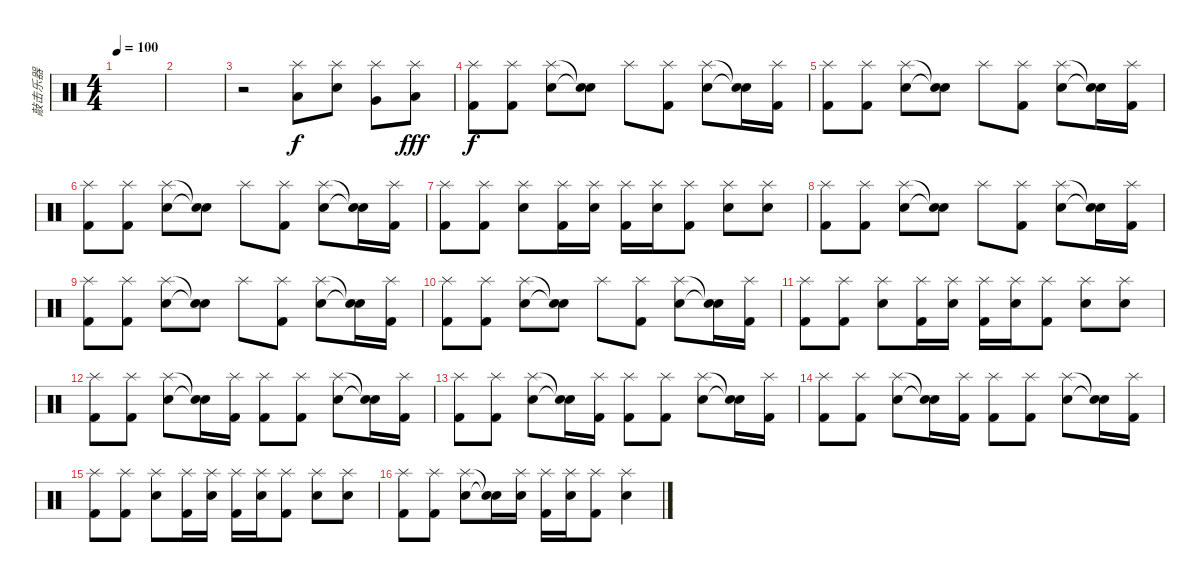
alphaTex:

\track ("敲击乐器" "敲击乐器") {instrument percussion}
\staff {score}
\articulation defaults
\ts (4 4)
\tempo 100
\clef neutral
\ks c
|
|
r.2 ("Low Floor Tom (hit)" "Splash (hit)").8 ("Electric Snare (hit)" "Splash (hit)").8 ("Very Low Tom (hit)" "Splash (hit)").8 ("Low Floor Tom (hit)" "Splash (hit)").8{dy fff} |
("Kick (hit) 2" "Splash (hit)").8{dy f} ("Kick (hit) 2" "Splash (hit)").8 ("Electric Snare (hit)" "Splash (hit)").8 ("Snare (hit)"{t} "Snare (hit)"{t}).8 "Splash (hit)".8 ("Kick (hit) 2" "Splash (hit)").8 ("Electric Snare (hit)" "Splash (hit)").8 ("Snare (hit)"{t} "Snare (hit)"{t}).16 ("Kick (hit) 2" "Splash (hit)").16 |
("Kick (hit) 2" "Splash (hit)").8 ("Kick (hit) 2" "Splash (hit)").8 ("Electric Snare (hit)" "Splash (hit)").8 ("Snare (hit)"{t} "Snare (hit)"{t}).8 "Splash (hit)".8 ("Kick (hit) 2" "Splash (hit)").8 ("Electric Snare (hit)" "Splash (hit)").8 ("Snare (hit)"{t} "Snare (hit)"{t}).16 ("Kick (hit) 2" "Splash (hit)").16 |
("Kick (hit) 2" "Splash (hit)").8 ("Kick (hit) 2" "Splash (hit)").8 ("Electric Snare (hit)" "Splash (hit)").8 ("Snare (hit)"{t} "Snare (hit)"{t}).8 "Splash (hit)".8 ("Kick (hit) 2" "Splash (hit)").8 ("Electric Snare (hit)" "Splash (hit)").8 ("Snare (hit)"{t} "Snare (hit)"{t}).16 ("Kick (hit) 2" "Splash (hit)").16 |
("Kick (hit) 2" "Splash (hit)").8 ("Kick (hit) 2" "Splash (hit)").8 ("Electric Snare (hit)" "Splash (hit)").8 ("Kick (hit) 2" "Splash (hit)").16 ("Electric Snare (hit)" "Splash (hit)").16 ("Kick (hit) 2" "Splash (hit)").16 ("Electric Snare (hit)" "Splash (hit)").16 ("Kick (hit) 2" "Splash (hit)").8 ("Electric Snare (hit)" "Splash (hit)").8 ("Electric Snare (hit)" "Splash (hit)").8 |
("Kick (hit) 2" "Splash (hit)").8 ("Kick (hit) 2" "Splash (hit)").8 ("Electric Snare (hit)" "Splash (hit)").8 ("Snare (hit)"{t} "Snare (hit)"{t}).8 "Splash (hit)".8 ("Kick (hit) 2" "Splash (hit)").8 ("Electric Snare (hit)" "Splash (hit)").8 ("Snare (hit)"{t} "Snare (hit)"{t}).16 ("Kick (hit) 2" "Splash (hit)").16 |
("Kick (hit) 2" "Splash (hit)").8 ("Kick (hit) 2" "Splash (hit)").8 ("Electric Snare (hit)" "Splash (hit)").8 ("Snare (hit)"{t} "Snare (hit)"{t}).8 "Splash (hit)".8 ("Kick (hit) 2" "Splash (hit)").8 ("Electric Snare (hit)" "Splash (hit)").8 ("Snare (hit)"{t} "Snare (hit)"{t}).16 ("Kick (hit) 2" "Splash (hit)").16 |
("Kick (hit) 2" "Splash (hit)").8 ("Kick (hit) 2" "Splash (hit)").8 ("Electric Snare (hit)" "Splash (hit)").8 ("Snare (hit)"{t} "Snare (hit)"{t}).8 "Splash (hit)".8 ("Kick (hit) 2" "Splash (hit)").8 ("Electric Snare (hit)" "Splash (hit)").8 ("Snare (hit)"{t} "Snare (hit)"{t}).16 ("Kick (hit) 2" "Splash (hit)").16 |
("Kick (hit) 2" "Splash (hit)").8 ("Kick (hit) 2" "Splash (hit)").8 ("Electric Snare (hit)" "Splash (hit)").8 ("Kick (hit) 2" "Splash (hit)").16 ("Electric Snare (hit)" "Splash (hit)").16 ("Kick (hit) 2" "Splash (hit)").16 ("Electric Snare (hit)" "Splash (hit)").16 ("Kick (hit) 2" "Splash (hit)").8 ("Electric Snare (hit)" "Splash (hit)").8 ("Electric Snare (hit)" "Splash (hit)").8 |
("Kick (hit) 2" "Splash (hit)").8 ("Kick (hit) 2" "Splash (hit)").8 ("Electric Snare (hit)" "Splash (hit)").8 ("Snare (hit)"{t} "Snare (hit)"{t}).16 ("Kick (hit) 2" "Splash (hit)").16 ("Kick (hit) 2" "Splash (hit)").8 ("Kick (hit) 2" "Splash (hit)").8 ("Electric Snare (hit)" "Splash (hit)").8 ("Snare (hit)"{t} "Snare (hit)"{t}).16 ("Kick (hit) 2" "Splash (hit)").16 |
("Kick (hit) 2" "Splash (hit)").8 ("Kick (hit) 2" "Splash (hit)").8 ("Electric Snare (hit)" "Splash (hit)").8 ("Snare (hit)"{t} "Snare (hit)"{t}).16 ("Kick (hit) 2" "Splash (hit)").16 ("Kick (hit) 2" "Splash (hit)").8 ("Kick (hit) 2" "Splash (hit)").8 ("Electric Snare (hit)" "Splash (hit)").8 ("Snare (hit)"{t} "Snare (hit)"{t}).16 ("Kick (hit) 2" "Splash (hit)").16 |
("Kick (hit) 2" "Splash (hit)").8 ("Kick (hit) 2" "Splash (hit)").8 ("Electric Snare (hit)" "Splash (hit)").8 ("Snare (hit)"{t} "Snare (hit)"{t}).16 ("Kick (hit) 2" "Splash (hit)").16 ("Kick (hit) 2" "Splash (hit)").8 ("Kick (hit) 2" "Splash (hit)").8 ("Electric Snare (hit)" "Splash (hit)").8 ("Snare (hit)"{t} "Snare (hit)"{t}).16 ("Kick (hit) 2" "Splash (hit)").16 |
("Kick (hit) 2" "Splash (hit)").8 ("Kick (hit) 2" "Splash (hit)").8 ("Electric Snare (hit)" "Splash (hit)").8 ("Kick (hit) 2" "Splash (hit)").16 ("Electric Snare (hit)" "Splash (hit)").16 ("Kick (hit) 2" "Splash (hit)").16 ("Electric Snare (hit)" "Splash (hit)").16 ("Kick (hit) 2" "Splash (hit)").8 ("Electric Snare (hit)" "Splash (hit)").8 ("Electric Snare (hit)" "Splash (hit)").8 |
("Kick (hit) 2" "Splash (hit)").8 ("Kick (hit) 2" "Splash (hit)").8 ("Electric Snare (hit)" "Splash (hit)").8 ("Snare (hit)"{t} "Snare (hit)"{t}).16 ("Electric Snare (hit)" "Splash (hit)").16 ("Kick (hit) 2" "Splash (hit)").16 ("Electric Snare (hit)" "Splash (hit)").16 ("Kick (hit) 2" "Splash (hit)").8 ("Electric Snare (hit)" "Splash (hit)").4
